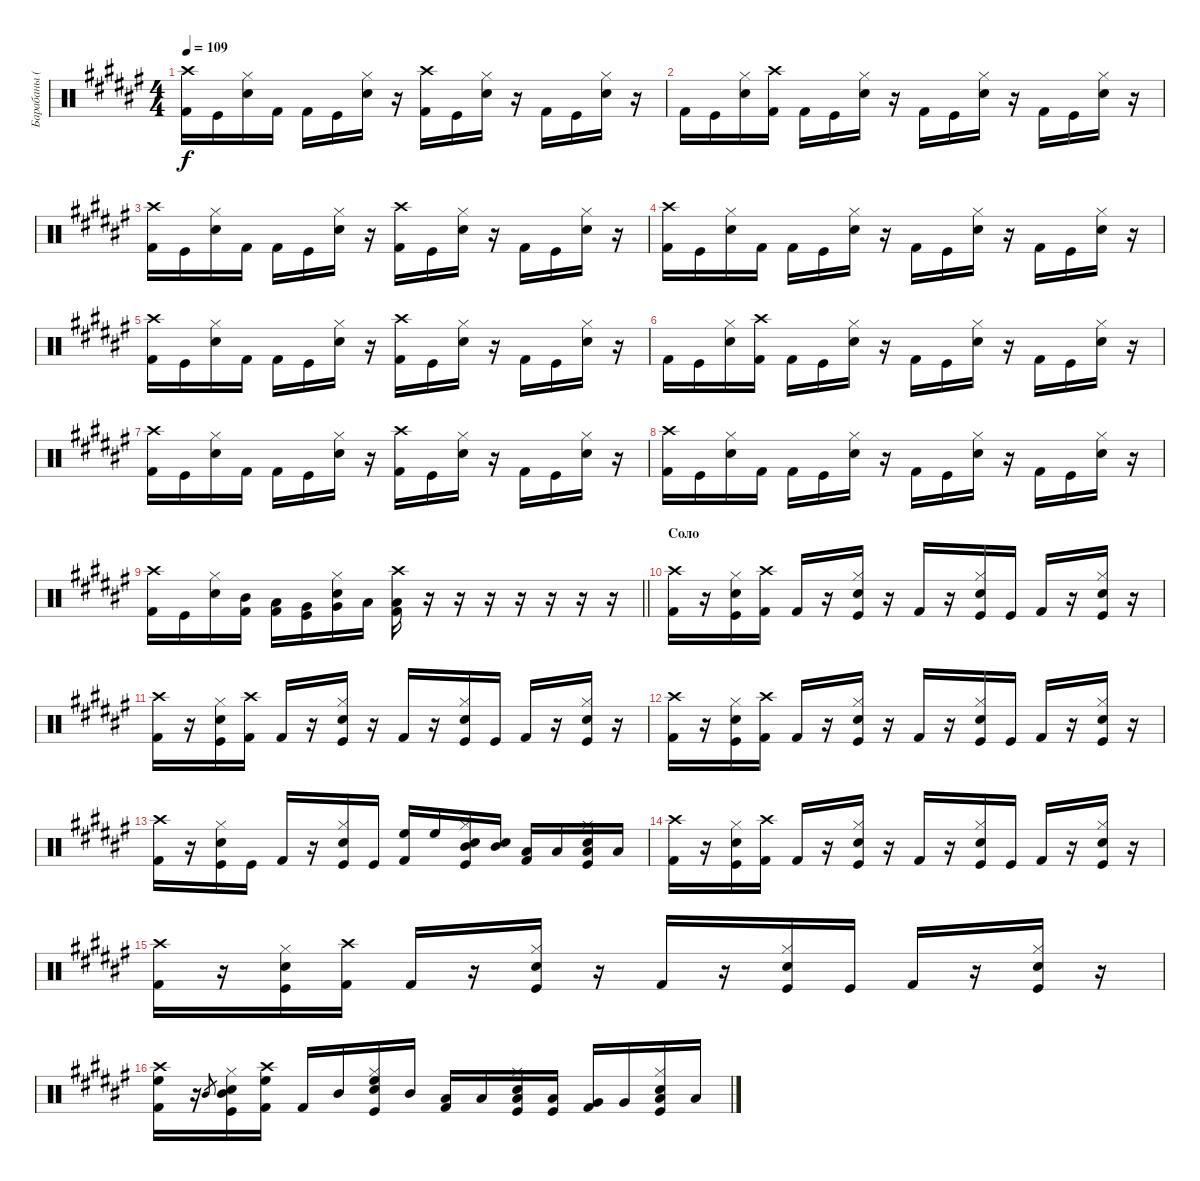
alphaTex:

\track ("Барабаны (Н.Лысов)" "Барабаны (") {instrument percussion}
\staff {score}
\articulation defaults
\ts (4 4)
\tempo 109
\clef neutral
\ks f#
("Crash high (hit)" "Kick (hit) 2").16{dy f} "Kick (hit)".16 ("Hi-Hat (closed)" "Snare (hit) 2").16 "Kick (hit) 2".16 "Kick (hit) 2".16 "Kick (hit)".16 ("Hi-Hat (closed)" "Snare (hit) 2").16 r.16 ("Crash high (hit)" "Kick (hit) 2").16 "Kick (hit)".16 ("Hi-Hat (closed)" "Snare (hit) 2").16 r.16 "Kick (hit) 2".16 "Kick (hit)".16 ("Hi-Hat (closed)" "Snare (hit) 2").16 r.16 |
"Kick (hit) 2".16 "Kick (hit)".16 ("Hi-Hat (closed)" "Snare (hit) 2").16 ("Crash high (hit)" "Kick (hit) 2").16 "Kick (hit) 2".16 "Kick (hit)".16 ("Hi-Hat (closed)" "Snare (hit) 2").16 r.16 "Kick (hit) 2".16 "Kick (hit)".16 ("Hi-Hat (closed)" "Snare (hit) 2").16 r.16 "Kick (hit) 2".16 "Kick (hit)".16 ("Hi-Hat (closed)" "Snare (hit) 2").16 r.16 |
("Crash high (hit)" "Kick (hit) 2").16 "Kick (hit)".16 ("Hi-Hat (closed)" "Snare (hit) 2").16 "Kick (hit) 2".16 "Kick (hit) 2".16 "Kick (hit)".16 ("Hi-Hat (closed)" "Snare (hit) 2").16 r.16 ("Crash high (hit)" "Kick (hit) 2").16 "Kick (hit)".16 ("Hi-Hat (closed)" "Snare (hit) 2").16 r.16 "Kick (hit) 2".16 "Kick (hit)".16 ("Hi-Hat (closed)" "Snare (hit) 2").16 r.16 |
("Crash high (hit)" "Kick (hit) 2").16 "Kick (hit)".16 ("Hi-Hat (closed)" "Snare (hit) 2").16 "Kick (hit) 2".16 "Kick (hit) 2".16 "Kick (hit)".16 ("Hi-Hat (closed)" "Snare (hit) 2").16 r.16 "Kick (hit) 2".16 "Kick (hit)".16 ("Hi-Hat (closed)" "Snare (hit) 2").16 r.16 "Kick (hit) 2".16 "Kick (hit)".16 ("Hi-Hat (closed)" "Snare (hit) 2").16 r.16 |
("Crash high (hit)" "Kick (hit) 2").16 "Kick (hit)".16 ("Hi-Hat (closed)" "Snare (hit) 2").16 "Kick (hit) 2".16 "Kick (hit) 2".16 "Kick (hit)".16 ("Hi-Hat (closed)" "Snare (hit) 2").16 r.16 ("Crash high (hit)" "Kick (hit) 2").16 "Kick (hit)".16 ("Hi-Hat (closed)" "Snare (hit) 2").16 r.16 "Kick (hit) 2".16 "Kick (hit)".16 ("Hi-Hat (closed)" "Snare (hit) 2").16 r.16 |
"Kick (hit) 2".16 "Kick (hit)".16 ("Hi-Hat (closed)" "Snare (hit) 2").16 ("Crash high (hit)" "Kick (hit) 2").16 "Kick (hit) 2".16 "Kick (hit)".16 ("Hi-Hat (closed)" "Snare (hit) 2").16 r.16 "Kick (hit) 2".16 "Kick (hit)".16 ("Hi-Hat (closed)" "Snare (hit) 2").16 r.16 "Kick (hit) 2".16 "Kick (hit)".16 ("Hi-Hat (closed)" "Snare (hit) 2").16 r.16 |
("Crash high (hit)" "Kick (hit) 2").16 "Kick (hit)".16 ("Hi-Hat (closed)" "Snare (hit) 2").16 "Kick (hit) 2".16 "Kick (hit) 2".16 "Kick (hit)".16 ("Hi-Hat (closed)" "Snare (hit) 2").16 r.16 ("Crash high (hit)" "Kick (hit) 2").16 "Kick (hit)".16 ("Hi-Hat (closed)" "Snare (hit) 2").16 r.16 "Kick (hit) 2".16 "Kick (hit)".16 ("Hi-Hat (closed)" "Snare (hit) 2").16 r.16 |
("Crash high (hit)" "Kick (hit) 2").16 "Kick (hit)".16 ("Hi-Hat (closed)" "Snare (hit) 2").16 "Kick (hit) 2".16 "Kick (hit) 2".16 "Kick (hit)".16 ("Hi-Hat (closed)" "Snare (hit) 2").16 r.16 "Kick (hit) 2".16 "Kick (hit)".16 ("Hi-Hat (closed)" "Snare (hit) 2").16 r.16 "Kick (hit) 2".16 "Kick (hit)".16 ("Hi-Hat (closed)" "Snare (hit) 2").16 r.16 |
\barLineRight lightlight
("Crash high (hit)" "Kick (hit) 2").16 "Kick (hit)".16 ("Hi-Hat (closed)" "Snare (hit) 2").16 ("Mid Tom (hit)" "Kick (hit) 2").16 ("Low Tom (hit)" "Kick (hit) 2").16 ("Very Low Tom (hit)" "Kick (hit)").16 ("Hi-Hat (closed)" "Snare (hit) 2" "Very Low Tom (hit)").16 "Low Floor Tom (hit)".16 ("Crash high (hit)" "Low Floor Tom (hit)" "Kick (hit) 2").16 r.16 r.16 r.16 r.16 r.16 r.16 r.16 |
\section ("" "Соло")
("Crash high (hit)" "Kick (hit) 2").16 r.16 ("Hi-Hat (closed)" "Snare (hit) 2" "Kick (hit)").16 ("Crash high (hit)" "Kick (hit) 2").16 "Kick (hit) 2".16 r.16 ("Hi-Hat (closed)" "Snare (hit) 2" "Kick (hit)").16 r.16 "Kick (hit) 2".16 r.16 ("Hi-Hat (closed)" "Snare (hit) 2" "Kick (hit)").16 "Kick (hit)".16 "Kick (hit) 2".16 r.16 ("Hi-Hat (closed)" "Snare (hit) 2" "Kick (hit)").16 r.16 |
("Crash high (hit)" "Kick (hit) 2").16 r.16 ("Hi-Hat (closed)" "Snare (hit) 2" "Kick (hit)").16 ("Crash high (hit)" "Kick (hit) 2").16 "Kick (hit) 2".16 r.16 ("Hi-Hat (closed)" "Snare (hit) 2" "Kick (hit)").16 r.16 "Kick (hit) 2".16 r.16 ("Hi-Hat (closed)" "Snare (hit) 2" "Kick (hit)").16 "Kick (hit)".16 "Kick (hit) 2".16 r.16 ("Hi-Hat (closed)" "Snare (hit) 2" "Kick (hit)").16 r.16 |
("Crash high (hit)" "Kick (hit) 2").16 r.16 ("Hi-Hat (closed)" "Snare (hit) 2" "Kick (hit)").16 ("Crash high (hit)" "Kick (hit) 2").16 "Kick (hit) 2".16 r.16 ("Hi-Hat (closed)" "Snare (hit) 2" "Kick (hit)").16 r.16 "Kick (hit) 2".16 r.16 ("Hi-Hat (closed)" "Snare (hit) 2" "Kick (hit)").16 "Kick (hit)".16 "Kick (hit) 2".16 r.16 ("Hi-Hat (closed)" "Snare (hit) 2" "Kick (hit)").16 r.16 |
("Crash high (hit)" "Kick (hit) 2").16 r.16 ("Hi-Hat (closed)" "Snare (hit) 2" "Kick (hit)").16 "Kick (hit)".16 "Kick (hit) 2".16 r.16 ("Hi-Hat (closed)" "Snare (hit) 2" "Kick (hit)").16 "Kick (hit)".16 ("High Floor Tom (hit)" "Kick (hit) 2").16 "High Floor Tom (hit)".16 ("Hi-Hat (closed)" "Snare (hit) 2" "Mid Tom (hit)" "Kick (hit)").16 ("Snare (hit) 2" "Mid Tom (hit)").16 ("Low Tom (hit)" "Kick (hit) 2").16 "Low Tom (hit)".16 ("Hi-Hat (closed)" "Snare (hit) 2" "Low Floor Tom (hit)" "Kick (hit)").16 "Low Floor Tom (hit)".16 |
("Crash high (hit)" "Kick (hit) 2").16 r.16 ("Hi-Hat (closed)" "Snare (hit) 2" "Kick (hit)").16 ("Crash high (hit)" "Kick (hit) 2").16 "Kick (hit) 2".16 r.16 ("Hi-Hat (closed)" "Snare (hit) 2" "Kick (hit)").16 r.16 "Kick (hit) 2".16 r.16 ("Hi-Hat (closed)" "Snare (hit) 2" "Kick (hit)").16 "Kick (hit)".16 "Kick (hit) 2".16 r.16 ("Hi-Hat (closed)" "Snare (hit) 2" "Kick (hit)").16 r.16 |
("Crash high (hit)" "Kick (hit) 2").16 r.16 ("Hi-Hat (closed)" "Snare (hit) 2" "Kick (hit)").16 ("Crash high (hit)" "Kick (hit) 2").16 "Kick (hit) 2".16 r.16 ("Hi-Hat (closed)" "Snare (hit) 2" "Kick (hit)").16 r.16 "Kick (hit) 2".16 r.16 ("Hi-Hat (closed)" "Snare (hit) 2" "Kick (hit)").16 "Kick (hit)".16 "Kick (hit) 2".16 r.16 ("Hi-Hat (closed)" "Snare (hit) 2" "Kick (hit)").16 r.16 |
("Crash high (hit)" "High Floor Tom (hit)" "Kick (hit) 2").16 r.16 "Mid Tom (hit)".8{gr} ("Hi-Hat (closed)" "Snare (hit) 2" "Mid Tom (hit)" "Kick (hit)").16 ("Crash high (hit)" "High Floor Tom (hit)" "Kick (hit) 2").16 "Kick (hit) 2".16 "Mid Tom (hit)".16 ("Hi-Hat (closed)" "Snare (hit) 2" "High Floor Tom (hit)" "Kick (hit)").16 "Mid Tom (hit)".16 ("Low Tom (hit)" "Kick (hit) 2").16 "Low Tom (hit)".16 ("Hi-Hat (closed)" "Snare (hit) 2" "Low Tom (hit)" "Kick (hit)").16 ("Low Tom (hit)" "Kick (hit)").16 ("Very Low Tom (hit)" "Kick (hit) 2").16 "Very Low Tom (hit)".16 ("Hi-Hat (closed)" "Snare (hit) 2" "Low Floor Tom (hit)" "Kick (hit)").16 "Low Floor Tom (hit)".16
